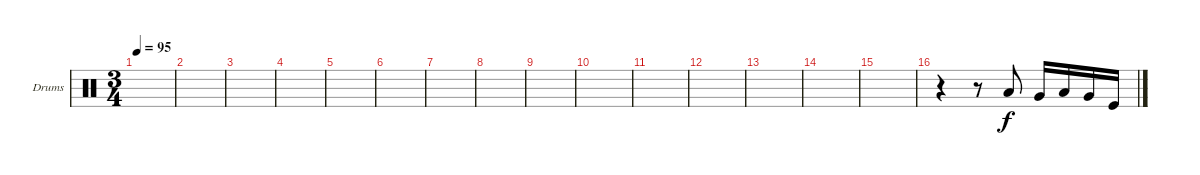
\defaultSystemsLayout 4
\bracketExtendMode groupsimilarinstruments
\firstSystemTrackNameOrientation horizontal
\otherSystemsTrackNameOrientation horizontal
\track ("Drumkit" "Drums") {instrument percussion}
\staff {score}
\articulation defaults
\ts (3 4)
\tempo 95
\clef neutral
\scale
0.474178
\ks c
|
\scale
0.262911 |
\scale
0.262911 |
\scale
0.333333 |
\scale
0.333333 |
\scale
0.333333 |
\scale
0.333333 |
\scale
0.333333 |
\scale
0.333333 |
\scale
0.333333 |
\scale
0.333333 |
\scale
0.333333 |
\scale
0.333333 |
\scale
0.333333 |
\scale
0.333333 |
\scale
0.262911 r.4 r.8 "Low Tom (hit)".8 "Very Low Tom (hit)".16 "Low Tom (hit)".16 "Very Low Tom (hit)".16 "Kick (hit)".16
